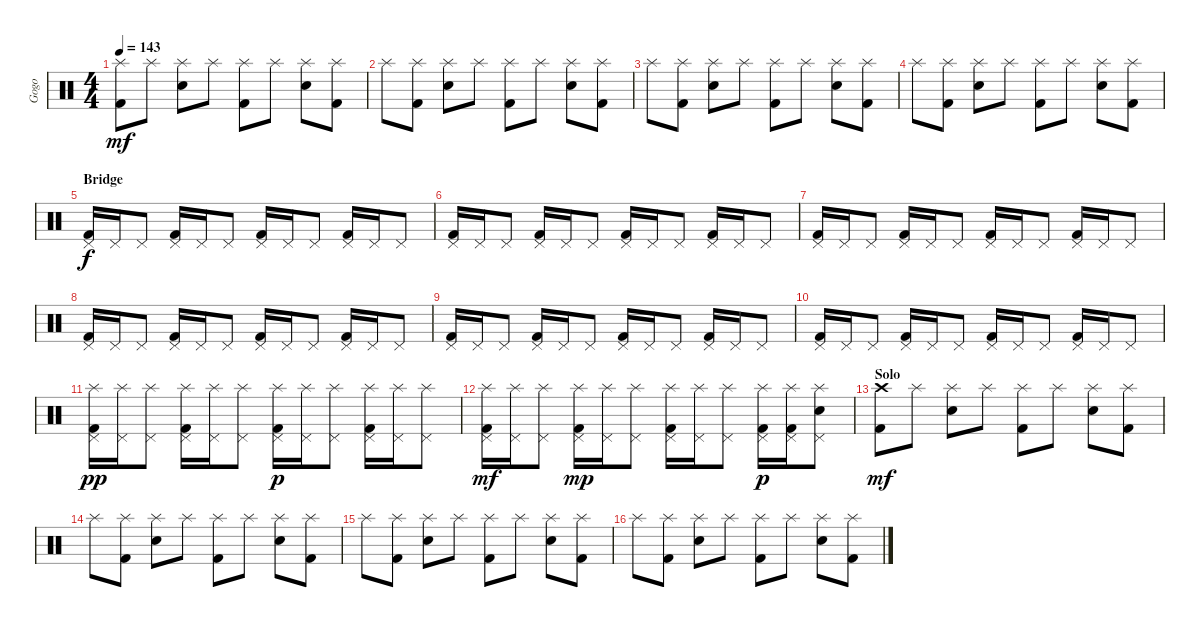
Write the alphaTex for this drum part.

\track ("Gogo" "Gogo") {instrument percussion}
\staff {score}
\articulation defaults
\ts (4 4)
\tempo 143
\clef neutral
\ks c
("Splash (hit)" "Kick (hit) 2").8{dy mf} "Splash (hit)".8 ("Splash (hit)" "Electric Snare (hit)").8 "Splash (hit)".8 ("Splash (hit)" "Kick (hit) 2").8 "Splash (hit)".8 ("Splash (hit)" "Electric Snare (hit)").8 ("Splash (hit)" "Kick (hit) 2").8 |
"Splash (hit)".8 ("Splash (hit)" "Kick (hit) 2").8 ("Splash (hit)" "Electric Snare (hit)").8 "Splash (hit)".8 ("Splash (hit)" "Kick (hit) 2").8 "Splash (hit)".8 ("Splash (hit)" "Electric Snare (hit)").8 ("Splash (hit)" "Kick (hit) 2").8 |
"Splash (hit)".8 ("Splash (hit)" "Kick (hit) 2").8 ("Splash (hit)" "Electric Snare (hit)").8 "Splash (hit)".8 ("Splash (hit)" "Kick (hit) 2").8 "Splash (hit)".8 ("Splash (hit)" "Electric Snare (hit)").8 ("Splash (hit)" "Kick (hit) 2").8 |
"Splash (hit)".8 ("Splash (hit)" "Kick (hit) 2").8 ("Splash (hit)" "Electric Snare (hit)").8 "Splash (hit)".8 ("Splash (hit)" "Kick (hit) 2").8 "Splash (hit)".8 ("Splash (hit)" "Electric Snare (hit)").8 ("Splash (hit)" "Kick (hit) 2").8 |
\section ("" "Bridge")
("Pedal Hi-Hat (hit)" "Kick (hit) 2").16{dy f} "Pedal Hi-Hat (hit)".16 "Pedal Hi-Hat (hit)".8 ("Pedal Hi-Hat (hit)" "Kick (hit) 2").16 "Pedal Hi-Hat (hit)".16 "Pedal Hi-Hat (hit)".8 ("Pedal Hi-Hat (hit)" "Kick (hit) 2").16 "Pedal Hi-Hat (hit)".16 "Pedal Hi-Hat (hit)".8 ("Pedal Hi-Hat (hit)" "Kick (hit) 2").16 "Pedal Hi-Hat (hit)".16 "Pedal Hi-Hat (hit)".8 |
("Pedal Hi-Hat (hit)" "Kick (hit) 2").16 "Pedal Hi-Hat (hit)".16 "Pedal Hi-Hat (hit)".8 ("Pedal Hi-Hat (hit)" "Kick (hit) 2").16 "Pedal Hi-Hat (hit)".16 "Pedal Hi-Hat (hit)".8 ("Pedal Hi-Hat (hit)" "Kick (hit) 2").16 "Pedal Hi-Hat (hit)".16 "Pedal Hi-Hat (hit)".8 ("Pedal Hi-Hat (hit)" "Kick (hit) 2").16 "Pedal Hi-Hat (hit)".16 "Pedal Hi-Hat (hit)".8 |
("Pedal Hi-Hat (hit)" "Kick (hit) 2").16 "Pedal Hi-Hat (hit)".16 "Pedal Hi-Hat (hit)".8 ("Pedal Hi-Hat (hit)" "Kick (hit) 2").16 "Pedal Hi-Hat (hit)".16 "Pedal Hi-Hat (hit)".8 ("Pedal Hi-Hat (hit)" "Kick (hit) 2").16 "Pedal Hi-Hat (hit)".16 "Pedal Hi-Hat (hit)".8 ("Pedal Hi-Hat (hit)" "Kick (hit) 2").16 "Pedal Hi-Hat (hit)".16 "Pedal Hi-Hat (hit)".8 |
("Pedal Hi-Hat (hit)" "Kick (hit) 2").16 "Pedal Hi-Hat (hit)".16 "Pedal Hi-Hat (hit)".8 ("Pedal Hi-Hat (hit)" "Kick (hit) 2").16 "Pedal Hi-Hat (hit)".16 "Pedal Hi-Hat (hit)".8 ("Pedal Hi-Hat (hit)" "Kick (hit) 2").16 "Pedal Hi-Hat (hit)".16 "Pedal Hi-Hat (hit)".8 ("Pedal Hi-Hat (hit)" "Kick (hit) 2").16 "Pedal Hi-Hat (hit)".16 "Pedal Hi-Hat (hit)".8 |
("Pedal Hi-Hat (hit)" "Kick (hit) 2").16 "Pedal Hi-Hat (hit)".16 "Pedal Hi-Hat (hit)".8 ("Pedal Hi-Hat (hit)" "Kick (hit) 2").16 "Pedal Hi-Hat (hit)".16 "Pedal Hi-Hat (hit)".8 ("Pedal Hi-Hat (hit)" "Kick (hit) 2").16 "Pedal Hi-Hat (hit)".16 "Pedal Hi-Hat (hit)".8 ("Pedal Hi-Hat (hit)" "Kick (hit) 2").16 "Pedal Hi-Hat (hit)".16 "Pedal Hi-Hat (hit)".8 |
("Pedal Hi-Hat (hit)" "Kick (hit) 2").16 "Pedal Hi-Hat (hit)".16 "Pedal Hi-Hat (hit)".8 ("Pedal Hi-Hat (hit)" "Kick (hit) 2").16 "Pedal Hi-Hat (hit)".16 "Pedal Hi-Hat (hit)".8 ("Pedal Hi-Hat (hit)" "Kick (hit) 2").16 "Pedal Hi-Hat (hit)".16 "Pedal Hi-Hat (hit)".8 ("Pedal Hi-Hat (hit)" "Kick (hit) 2").16 "Pedal Hi-Hat (hit)".16 "Pedal Hi-Hat (hit)".8 |
("Pedal Hi-Hat (hit)" "Splash (hit)" "Kick (hit) 2").16{dy pp} ("Pedal Hi-Hat (hit)" "Splash (hit)").16 ("Pedal Hi-Hat (hit)" "Splash (hit)").8 ("Pedal Hi-Hat (hit)" "Splash (hit)" "Kick (hit) 2").16 ("Pedal Hi-Hat (hit)" "Splash (hit)").16 ("Pedal Hi-Hat (hit)" "Splash (hit)").8 ("Pedal Hi-Hat (hit)" "Splash (hit)" "Kick (hit) 2").16{dy p} ("Pedal Hi-Hat (hit)" "Splash (hit)").16 ("Pedal Hi-Hat (hit)" "Splash (hit)").8 ("Pedal Hi-Hat (hit)" "Splash (hit)" "Kick (hit) 2").16 ("Pedal Hi-Hat (hit)" "Splash (hit)").16 ("Pedal Hi-Hat (hit)" "Splash (hit)").8 |
("Splash (hit)" "Pedal Hi-Hat (hit)" "Kick (hit) 2").16{dy mf} ("Splash (hit)" "Pedal Hi-Hat (hit)").16 ("Splash (hit)" "Pedal Hi-Hat (hit)").8 ("Splash (hit)" "Pedal Hi-Hat (hit)" "Kick (hit) 2").16{dy mp} ("Splash (hit)" "Pedal Hi-Hat (hit)").16 ("Splash (hit)" "Pedal Hi-Hat (hit)").8 ("Splash (hit)" "Pedal Hi-Hat (hit)" "Kick (hit) 2").16 ("Splash (hit)" "Pedal Hi-Hat (hit)").16 ("Splash (hit)" "Pedal Hi-Hat (hit)").8 ("Splash (hit)" "Pedal Hi-Hat (hit)" "Kick (hit) 2").16{dy p} ("Splash (hit)" "Pedal Hi-Hat (hit)" "Kick (hit) 2").16 ("Splash (hit)" "Pedal Hi-Hat (hit)" "Electric Snare (hit)").8 |
\section ("" "Solo")
("Crash high (hit)" "Kick (hit) 2").8{dy mf} "Splash (hit)".8 ("Splash (hit)" "Electric Snare (hit)").8 "Splash (hit)".8 ("Splash (hit)" "Kick (hit) 2").8 "Splash (hit)".8 ("Splash (hit)" "Electric Snare (hit)").8 ("Splash (hit)" "Kick (hit) 2").8 |
"Splash (hit)".8 ("Splash (hit)" "Kick (hit) 2").8 ("Splash (hit)" "Electric Snare (hit)").8 "Splash (hit)".8 ("Splash (hit)" "Kick (hit) 2").8 "Splash (hit)".8 ("Splash (hit)" "Electric Snare (hit)").8 ("Splash (hit)" "Kick (hit) 2").8 |
"Splash (hit)".8 ("Splash (hit)" "Kick (hit) 2").8 ("Splash (hit)" "Electric Snare (hit)").8 "Splash (hit)".8 ("Splash (hit)" "Kick (hit) 2").8 "Splash (hit)".8 ("Splash (hit)" "Electric Snare (hit)").8 ("Splash (hit)" "Kick (hit) 2").8 |
"Splash (hit)".8 ("Splash (hit)" "Kick (hit) 2").8 ("Splash (hit)" "Electric Snare (hit)").8 "Splash (hit)".8 ("Splash (hit)" "Kick (hit) 2").8 "Splash (hit)".8 ("Splash (hit)" "Electric Snare (hit)").8 ("Splash (hit)" "Kick (hit) 2").8
